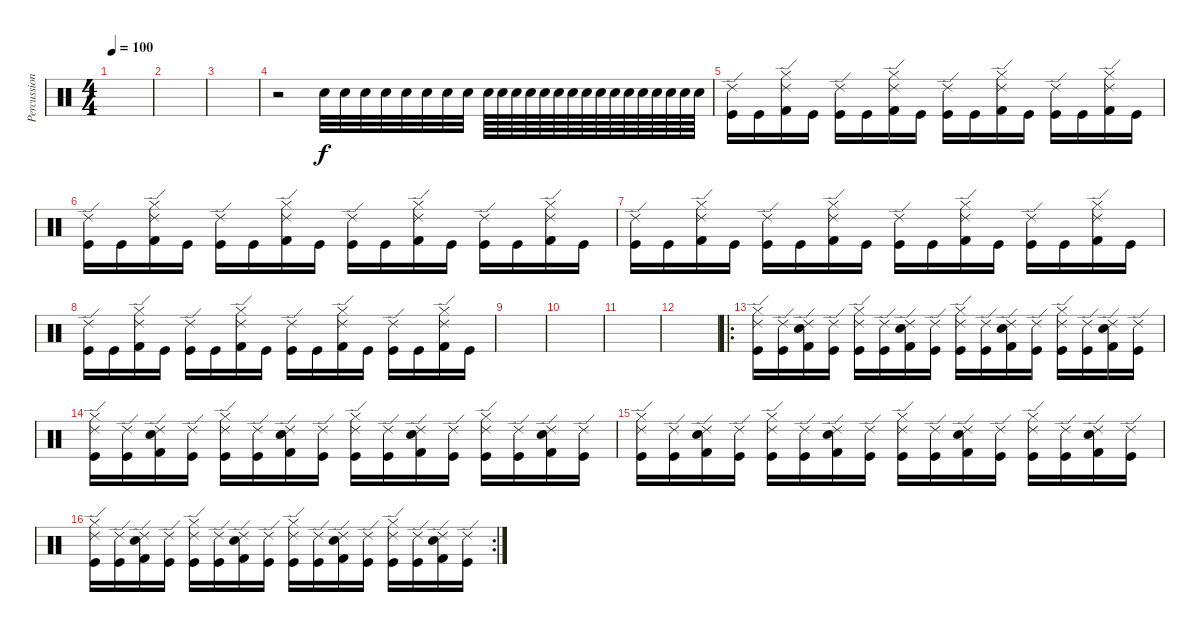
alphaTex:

\track ("Percussions" "Percussion") {instrument percussion}
\staff {score}
\articulation defaults
\ts (4 4)
\tempo 100
\clef neutral
\ks c
|
|
|
r.2 "Electric Snare (hit)".32 "Electric Snare (hit)".32 "Electric Snare (hit)".32 "Electric Snare (hit)".32 "Electric Snare (hit)".32 "Electric Snare (hit)".32 "Electric Snare (hit)".32 "Electric Snare (hit)".32 "Electric Snare (hit)".64 "Electric Snare (hit)".64 "Electric Snare (hit)".64 "Electric Snare (hit)".64 "Electric Snare (hit)".64 "Electric Snare (hit)".64 "Electric Snare (hit)".64 "Electric Snare (hit)".64 "Electric Snare (hit)".64 "Electric Snare (hit)".64 "Electric Snare (hit)".64 "Electric Snare (hit)".64 "Electric Snare (hit)".64 "Electric Snare (hit)".64 "Electric Snare (hit)".64 "Electric Snare (hit)".64 |
("Kick (hit)" "Ride (edge) 2").16 "Kick (hit)".16 ("Kick (hit) 2" "Ride (edge) 2" "Hi-Hat (closed)").16 "Kick (hit)".16 ("Kick (hit)" "Ride (edge) 2").16 "Kick (hit)".16 ("Kick (hit) 2" "Ride (edge) 2" "Hi-Hat (closed)").16 "Kick (hit)".16 ("Kick (hit)" "Ride (edge) 2").16 "Kick (hit)".16 ("Kick (hit) 2" "Ride (edge) 2" "Hi-Hat (closed)").16 "Kick (hit)".16 ("Kick (hit)" "Ride (edge) 2").16 "Kick (hit)".16 ("Kick (hit) 2" "Ride (edge) 2" "Hi-Hat (closed)").16 "Kick (hit)".16 |
("Kick (hit)" "Ride (edge) 2").16 "Kick (hit)".16 ("Kick (hit) 2" "Ride (edge) 2" "Hi-Hat (closed)").16 "Kick (hit)".16 ("Kick (hit)" "Ride (edge) 2").16 "Kick (hit)".16 ("Kick (hit) 2" "Ride (edge) 2" "Hi-Hat (closed)").16 "Kick (hit)".16 ("Kick (hit)" "Ride (edge) 2").16 "Kick (hit)".16 ("Kick (hit) 2" "Ride (edge) 2" "Hi-Hat (closed)").16 "Kick (hit)".16 ("Kick (hit)" "Ride (edge) 2").16 "Kick (hit)".16 ("Kick (hit) 2" "Ride (edge) 2" "Hi-Hat (closed)").16 "Kick (hit)".16 |
("Kick (hit)" "Ride (edge) 2").16 "Kick (hit)".16 ("Kick (hit) 2" "Ride (edge) 2" "Hi-Hat (closed)").16 "Kick (hit)".16 ("Kick (hit)" "Ride (edge) 2").16 "Kick (hit)".16 ("Kick (hit) 2" "Ride (edge) 2" "Hi-Hat (closed)").16 "Kick (hit)".16 ("Kick (hit)" "Ride (edge) 2").16 "Kick (hit)".16 ("Kick (hit) 2" "Ride (edge) 2" "Hi-Hat (closed)").16 "Kick (hit)".16 ("Kick (hit)" "Ride (edge) 2").16 "Kick (hit)".16 ("Kick (hit) 2" "Ride (edge) 2" "Hi-Hat (closed)").16 "Kick (hit)".16 |
("Kick (hit)" "Ride (edge) 2").16 "Kick (hit)".16 ("Kick (hit) 2" "Ride (edge) 2" "Hi-Hat (closed)").16 "Kick (hit)".16 ("Kick (hit)" "Ride (edge) 2").16 "Kick (hit)".16 ("Kick (hit) 2" "Ride (edge) 2" "Hi-Hat (closed)").16 "Kick (hit)".16 ("Kick (hit)" "Ride (edge) 2").16 "Kick (hit)".16 ("Kick (hit) 2" "Ride (edge) 2" "Hi-Hat (closed)").16 "Kick (hit)".16 ("Kick (hit)" "Ride (edge) 2").16 "Kick (hit)".16 ("Kick (hit) 2" "Ride (edge) 2" "Hi-Hat (closed)").16 "Kick (hit)".16 |
|
|
|
|
\ro
("Kick (hit)" "Ride (edge) 2" "Hi-Hat (closed)").16 ("Kick (hit)" "Ride (edge) 2").16 ("Kick (hit) 2" "Ride (edge) 2" "Snare (hit) 2").16 ("Kick (hit)" "Ride (edge) 2").16 ("Kick (hit)" "Ride (edge) 2" "Hi-Hat (closed)").16 ("Kick (hit)" "Ride (edge) 2").16 ("Kick (hit) 2" "Ride (edge) 2" "Snare (hit) 2").16 ("Kick (hit)" "Ride (edge) 2").16 ("Kick (hit)" "Ride (edge) 2" "Hi-Hat (closed)").16 ("Kick (hit)" "Ride (edge) 2").16 ("Kick (hit) 2" "Ride (edge) 2" "Snare (hit) 2").16 ("Kick (hit)" "Ride (edge) 2").16 ("Kick (hit)" "Ride (edge) 2" "Hi-Hat (closed)").16 ("Kick (hit)" "Ride (edge) 2").16 ("Kick (hit) 2" "Ride (edge) 2" "Snare (hit) 2").16 ("Kick (hit)" "Ride (edge) 2").16 |
("Kick (hit)" "Ride (edge) 2" "Hi-Hat (closed)").16 ("Kick (hit)" "Ride (edge) 2").16 ("Kick (hit) 2" "Ride (edge) 2" "Snare (hit) 2").16 ("Kick (hit)" "Ride (edge) 2").16 ("Kick (hit)" "Ride (edge) 2" "Hi-Hat (closed)").16 ("Kick (hit)" "Ride (edge) 2").16 ("Kick (hit) 2" "Ride (edge) 2" "Snare (hit) 2").16 ("Kick (hit)" "Ride (edge) 2").16 ("Kick (hit)" "Ride (edge) 2" "Hi-Hat (closed)").16 ("Kick (hit)" "Ride (edge) 2").16 ("Kick (hit) 2" "Ride (edge) 2" "Snare (hit) 2").16 ("Kick (hit)" "Ride (edge) 2").16 ("Kick (hit)" "Ride (edge) 2" "Hi-Hat (closed)").16 ("Kick (hit)" "Ride (edge) 2").16 ("Kick (hit) 2" "Ride (edge) 2" "Snare (hit) 2").16 ("Kick (hit)" "Ride (edge) 2").16 |
("Kick (hit)" "Ride (edge) 2" "Hi-Hat (closed)").16 ("Kick (hit)" "Ride (edge) 2").16 ("Kick (hit) 2" "Ride (edge) 2" "Snare (hit) 2").16 ("Kick (hit)" "Ride (edge) 2").16 ("Kick (hit)" "Ride (edge) 2" "Hi-Hat (closed)").16 ("Kick (hit)" "Ride (edge) 2").16 ("Kick (hit) 2" "Ride (edge) 2" "Snare (hit) 2").16 ("Kick (hit)" "Ride (edge) 2").16 ("Kick (hit)" "Ride (edge) 2" "Hi-Hat (closed)").16 ("Kick (hit)" "Ride (edge) 2").16 ("Kick (hit) 2" "Ride (edge) 2" "Snare (hit) 2").16 ("Kick (hit)" "Ride (edge) 2").16 ("Kick (hit)" "Ride (edge) 2" "Hi-Hat (closed)").16 ("Kick (hit)" "Ride (edge) 2").16 ("Kick (hit) 2" "Ride (edge) 2" "Snare (hit) 2").16 ("Kick (hit)" "Ride (edge) 2").16 |
\rc 2
("Kick (hit)" "Ride (edge) 2" "Hi-Hat (closed)").16 ("Kick (hit)" "Ride (edge) 2").16 ("Kick (hit) 2" "Ride (edge) 2" "Snare (hit) 2").16 ("Kick (hit)" "Ride (edge) 2").16 ("Kick (hit)" "Ride (edge) 2" "Hi-Hat (closed)").16 ("Kick (hit)" "Ride (edge) 2").16 ("Kick (hit) 2" "Ride (edge) 2" "Snare (hit) 2").16 ("Kick (hit)" "Ride (edge) 2").16 ("Kick (hit)" "Ride (edge) 2" "Hi-Hat (closed)").16 ("Kick (hit)" "Ride (edge) 2").16 ("Kick (hit) 2" "Ride (edge) 2" "Snare (hit) 2").16 ("Kick (hit)" "Ride (edge) 2").16 ("Kick (hit)" "Ride (edge) 2" "Hi-Hat (closed)").16 ("Kick (hit)" "Ride (edge) 2").16 ("Kick (hit) 2" "Ride (edge) 2" "Snare (hit) 2").16 ("Kick (hit)" "Ride (edge) 2").16
